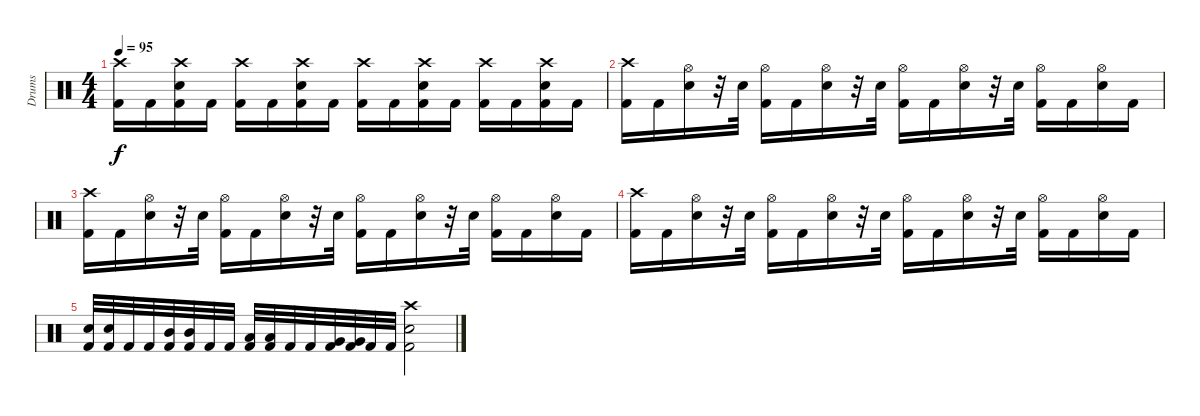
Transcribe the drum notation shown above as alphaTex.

\track ("Drums" "Drums") {instrument percussion}
\staff {score}
\articulation defaults
\ts (4 4)
\tempo 95
\clef neutral
\ks c
("Crash high (hit)" "Kick (hit) 2").16{dy f} "Kick (hit) 2".16 ("Crash high (hit)" "Kick (hit) 2" "Snare (hit) 2").16 "Kick (hit) 2".16 ("Crash high (hit)" "Kick (hit) 2").16 "Kick (hit) 2".16 ("Crash high (hit)" "Kick (hit) 2" "Snare (hit) 2").16 "Kick (hit) 2".16 ("Crash high (hit)" "Kick (hit) 2").16 "Kick (hit) 2".16 ("Crash high (hit)" "Kick (hit) 2" "Snare (hit) 2").16 "Kick (hit) 2".16 ("Crash high (hit)" "Kick (hit) 2").16 "Kick (hit) 2".16 ("Crash high (hit)" "Kick (hit) 2" "Snare (hit) 2").16 "Kick (hit) 2".16 |
("Crash high (hit)" "Kick (hit) 2").16 "Kick (hit) 2".16 ("Hi-Hat (open)" "Snare (hit) 2").16 r.32 "Snare (hit) 2".32 ("Hi-Hat (open)" "Kick (hit) 2").16 "Kick (hit) 2".16 ("Hi-Hat (open)" "Snare (hit) 2").16 r.32 "Snare (hit) 2".32 ("Hi-Hat (open)" "Kick (hit) 2").16 "Kick (hit) 2".16 ("Hi-Hat (open)" "Snare (hit) 2").16 r.32 "Snare (hit) 2".32 ("Hi-Hat (open)" "Kick (hit) 2").16 "Kick (hit) 2".16 ("Hi-Hat (open)" "Snare (hit) 2").16 "Kick (hit) 2".16 |
("Crash high (hit)" "Kick (hit) 2").16 "Kick (hit) 2".16 ("Hi-Hat (open)" "Snare (hit) 2").16 r.32 "Snare (hit) 2".32 ("Hi-Hat (open)" "Kick (hit) 2").16 "Kick (hit) 2".16 ("Hi-Hat (open)" "Snare (hit) 2").16 r.32 "Snare (hit) 2".32 ("Hi-Hat (open)" "Kick (hit) 2").16 "Kick (hit) 2".16 ("Hi-Hat (open)" "Snare (hit) 2").16 r.32 "Snare (hit) 2".32 ("Hi-Hat (open)" "Kick (hit) 2").16 "Kick (hit) 2".16 ("Hi-Hat (open)" "Snare (hit) 2").16 "Kick (hit) 2".16 |
("Crash high (hit)" "Kick (hit) 2").16 "Kick (hit) 2".16 ("Hi-Hat (open)" "Snare (hit) 2").16 r.32 "Snare (hit) 2".32 ("Hi-Hat (open)" "Kick (hit) 2").16 "Kick (hit) 2".16 ("Hi-Hat (open)" "Snare (hit) 2").16 r.32 "Snare (hit) 2".32 ("Hi-Hat (open)" "Kick (hit) 2").16 "Kick (hit) 2".16 ("Hi-Hat (open)" "Snare (hit) 2").16 r.32 "Snare (hit) 2".32 ("Hi-Hat (open)" "Kick (hit) 2").16 "Kick (hit) 2".16 ("Hi-Hat (open)" "Snare (hit) 2").16 "Kick (hit) 2".16 |
("Snare (hit) 2" "Kick (hit) 2").32 ("Snare (hit) 2" "Kick (hit) 2").32 "Kick (hit) 2".32 "Kick (hit) 2".32 ("Mid Tom (hit)" "Kick (hit) 2").32 ("Mid Tom (hit)" "Kick (hit) 2").32 "Kick (hit) 2".32 "Kick (hit) 2".32 ("Low Tom (hit)" "Kick (hit) 2").32 ("Low Tom (hit)" "Kick (hit) 2").32 "Kick (hit) 2".32 "Kick (hit) 2".32 ("Very Low Tom (hit)" "Kick (hit) 2").32 ("Very Low Tom (hit)" "Kick (hit) 2").32 "Kick (hit) 2".32 "Kick (hit) 2".32 ("Crash high (hit)" "Snare (hit) 2" "Kick (hit) 2").2
